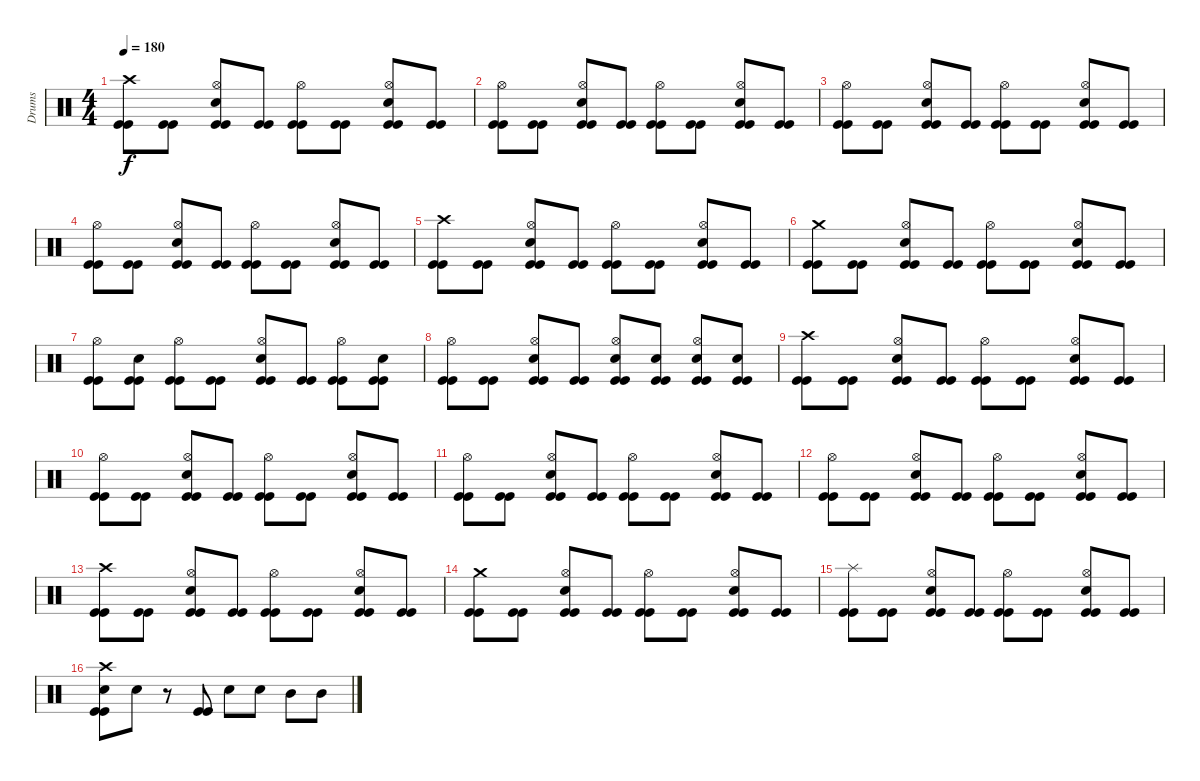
\track ("Drums" "Drums") {instrument percussion}
\staff {score}
\articulation defaults
\ts (4 4)
\tempo 180
\clef neutral
\ks c
("Crash high (hit)" "Kick (hit)" "Kick (hit)").8{dy f} ("Kick (hit)" "Kick (hit)").8 ("Hi-Hat (open)" "Kick (hit)" "Kick (hit)" "Snare (hit) 2").8 ("Kick (hit)" "Kick (hit)").8 ("Hi-Hat (open)" "Kick (hit)" "Kick (hit)").8 ("Kick (hit)" "Kick (hit)").8 ("Hi-Hat (open)" "Kick (hit)" "Kick (hit)" "Snare (hit) 2").8 ("Kick (hit)" "Kick (hit)").8 |
("Hi-Hat (open)" "Kick (hit)" "Kick (hit)").8 ("Kick (hit)" "Kick (hit)").8 ("Hi-Hat (open)" "Kick (hit)" "Kick (hit)" "Snare (hit) 2").8 ("Kick (hit)" "Kick (hit)").8 ("Hi-Hat (open)" "Kick (hit)" "Kick (hit)").8 ("Kick (hit)" "Kick (hit)").8 ("Hi-Hat (open)" "Kick (hit)" "Kick (hit)" "Snare (hit) 2").8 ("Kick (hit)" "Kick (hit)").8 |
("Hi-Hat (open)" "Kick (hit)" "Kick (hit)").8 ("Kick (hit)" "Kick (hit)").8 ("Hi-Hat (open)" "Kick (hit)" "Kick (hit)" "Snare (hit) 2").8 ("Kick (hit)" "Kick (hit)").8 ("Hi-Hat (open)" "Kick (hit)" "Kick (hit)").8 ("Kick (hit)" "Kick (hit)").8 ("Hi-Hat (open)" "Kick (hit)" "Kick (hit)" "Snare (hit) 2").8 ("Kick (hit)" "Kick (hit)").8 |
("Hi-Hat (open)" "Kick (hit)" "Kick (hit)").8 ("Kick (hit)" "Kick (hit)").8 ("Hi-Hat (open)" "Kick (hit)" "Kick (hit)" "Snare (hit) 2").8 ("Kick (hit)" "Kick (hit)").8 ("Hi-Hat (open)" "Kick (hit)" "Kick (hit)").8 ("Kick (hit)" "Kick (hit)").8 ("Hi-Hat (open)" "Kick (hit)" "Kick (hit)" "Snare (hit) 2").8 ("Kick (hit)" "Kick (hit)").8 |
("Crash high (hit)" "Kick (hit)" "Kick (hit)").8 ("Kick (hit)" "Kick (hit)").8 ("Hi-Hat (open)" "Kick (hit)" "Kick (hit)" "Snare (hit) 2").8 ("Kick (hit)" "Kick (hit)").8 ("Hi-Hat (open)" "Kick (hit)" "Kick (hit)").8 ("Kick (hit)" "Kick (hit)").8 ("Hi-Hat (open)" "Kick (hit)" "Kick (hit)" "Snare (hit) 2").8 ("Kick (hit)" "Kick (hit)").8 |
("Crash medium (hit)" "Kick (hit)" "Kick (hit)").8 ("Kick (hit)" "Kick (hit)").8 ("Hi-Hat (open)" "Kick (hit)" "Kick (hit)" "Snare (hit) 2").8 ("Kick (hit)" "Kick (hit)").8 ("Hi-Hat (open)" "Kick (hit)" "Kick (hit)").8 ("Kick (hit)" "Kick (hit)").8 ("Hi-Hat (open)" "Kick (hit)" "Kick (hit)" "Snare (hit) 2").8 ("Kick (hit)" "Kick (hit)").8 |
("Hi-Hat (open)" "Kick (hit)" "Kick (hit)").8 ("Kick (hit)" "Kick (hit)" "Snare (hit) 2").8 ("Hi-Hat (open)" "Kick (hit)" "Kick (hit)").8 ("Kick (hit)" "Kick (hit)").8 ("Hi-Hat (open)" "Kick (hit)" "Kick (hit)" "Snare (hit) 2").8 ("Kick (hit)" "Kick (hit)").8 ("Hi-Hat (open)" "Kick (hit)" "Kick (hit)").8 ("Kick (hit)" "Kick (hit)" "Snare (hit) 2").8 |
("Hi-Hat (open)" "Kick (hit)" "Kick (hit)").8 ("Kick (hit)" "Kick (hit)").8 ("Hi-Hat (open)" "Kick (hit)" "Kick (hit)" "Snare (hit) 2").8 ("Kick (hit)" "Kick (hit)").8 ("Hi-Hat (open)" "Kick (hit)" "Kick (hit)" "Snare (hit) 2").8 ("Kick (hit)" "Kick (hit)" "Snare (hit) 2").8 ("Hi-Hat (open)" "Kick (hit)" "Kick (hit)" "Snare (hit) 2").8 ("Kick (hit)" "Kick (hit)" "Snare (hit) 2").8 |
("Crash high (hit)" "Kick (hit)" "Kick (hit)").8 ("Kick (hit)" "Kick (hit)").8 ("Hi-Hat (open)" "Kick (hit)" "Kick (hit)" "Snare (hit) 2").8 ("Kick (hit)" "Kick (hit)").8 ("Hi-Hat (open)" "Kick (hit)" "Kick (hit)").8 ("Kick (hit)" "Kick (hit)").8 ("Hi-Hat (open)" "Kick (hit)" "Kick (hit)" "Snare (hit) 2").8 ("Kick (hit)" "Kick (hit)").8 |
("Hi-Hat (open)" "Kick (hit)" "Kick (hit)").8 ("Kick (hit)" "Kick (hit)").8 ("Hi-Hat (open)" "Kick (hit)" "Kick (hit)" "Snare (hit) 2").8 ("Kick (hit)" "Kick (hit)").8 ("Hi-Hat (open)" "Kick (hit)" "Kick (hit)").8 ("Kick (hit)" "Kick (hit)").8 ("Hi-Hat (open)" "Kick (hit)" "Kick (hit)" "Snare (hit) 2").8 ("Kick (hit)" "Kick (hit)").8 |
("Hi-Hat (open)" "Kick (hit)" "Kick (hit)").8 ("Kick (hit)" "Kick (hit)").8 ("Hi-Hat (open)" "Kick (hit)" "Kick (hit)" "Snare (hit) 2").8 ("Kick (hit)" "Kick (hit)").8 ("Hi-Hat (open)" "Kick (hit)" "Kick (hit)").8 ("Kick (hit)" "Kick (hit)").8 ("Hi-Hat (open)" "Kick (hit)" "Kick (hit)" "Snare (hit) 2").8 ("Kick (hit)" "Kick (hit)").8 |
("Hi-Hat (open)" "Kick (hit)" "Kick (hit)").8 ("Kick (hit)" "Kick (hit)").8 ("Hi-Hat (open)" "Kick (hit)" "Kick (hit)" "Snare (hit) 2").8 ("Kick (hit)" "Kick (hit)").8 ("Hi-Hat (open)" "Kick (hit)" "Kick (hit)").8 ("Kick (hit)" "Kick (hit)").8 ("Hi-Hat (open)" "Kick (hit)" "Kick (hit)" "Snare (hit) 2").8 ("Kick (hit)" "Kick (hit)").8 |
("Crash high (hit)" "Kick (hit)" "Kick (hit)").8 ("Kick (hit)" "Kick (hit)").8 ("Hi-Hat (open)" "Kick (hit)" "Kick (hit)" "Snare (hit) 2").8 ("Kick (hit)" "Kick (hit)").8 ("Hi-Hat (open)" "Kick (hit)" "Kick (hit)").8 ("Kick (hit)" "Kick (hit)").8 ("Hi-Hat (open)" "Kick (hit)" "Kick (hit)" "Snare (hit) 2").8 ("Kick (hit)" "Kick (hit)").8 |
("Crash medium (hit)" "Kick (hit)" "Kick (hit)").8 ("Kick (hit)" "Kick (hit)").8 ("Hi-Hat (open)" "Kick (hit)" "Kick (hit)" "Snare (hit) 2").8 ("Kick (hit)" "Kick (hit)").8 ("Hi-Hat (open)" "Kick (hit)" "Kick (hit)").8 ("Kick (hit)" "Kick (hit)").8 ("Hi-Hat (open)" "Kick (hit)" "Kick (hit)" "Snare (hit) 2").8 ("Kick (hit)" "Kick (hit)").8 |
("Splash (hit)" "Kick (hit)" "Kick (hit)").8 ("Kick (hit)" "Kick (hit)").8 ("Hi-Hat (open)" "Kick (hit)" "Kick (hit)" "Snare (hit) 2").8 ("Kick (hit)" "Kick (hit)").8 ("Hi-Hat (open)" "Kick (hit)" "Kick (hit)").8 ("Kick (hit)" "Kick (hit)").8 ("Hi-Hat (open)" "Kick (hit)" "Kick (hit)" "Snare (hit) 2").8 ("Kick (hit)" "Kick (hit)").8 |
("Crash high (hit)" "Snare (hit) 2" "Kick (hit)" "Kick (hit)").8 "Snare (hit) 2".8 r.8 ("Kick (hit)" "Kick (hit)").8 "Snare (hit) 2".8 "Snare (hit) 2".8 "Mid Tom (hit)".8 "Mid Tom (hit)".8
